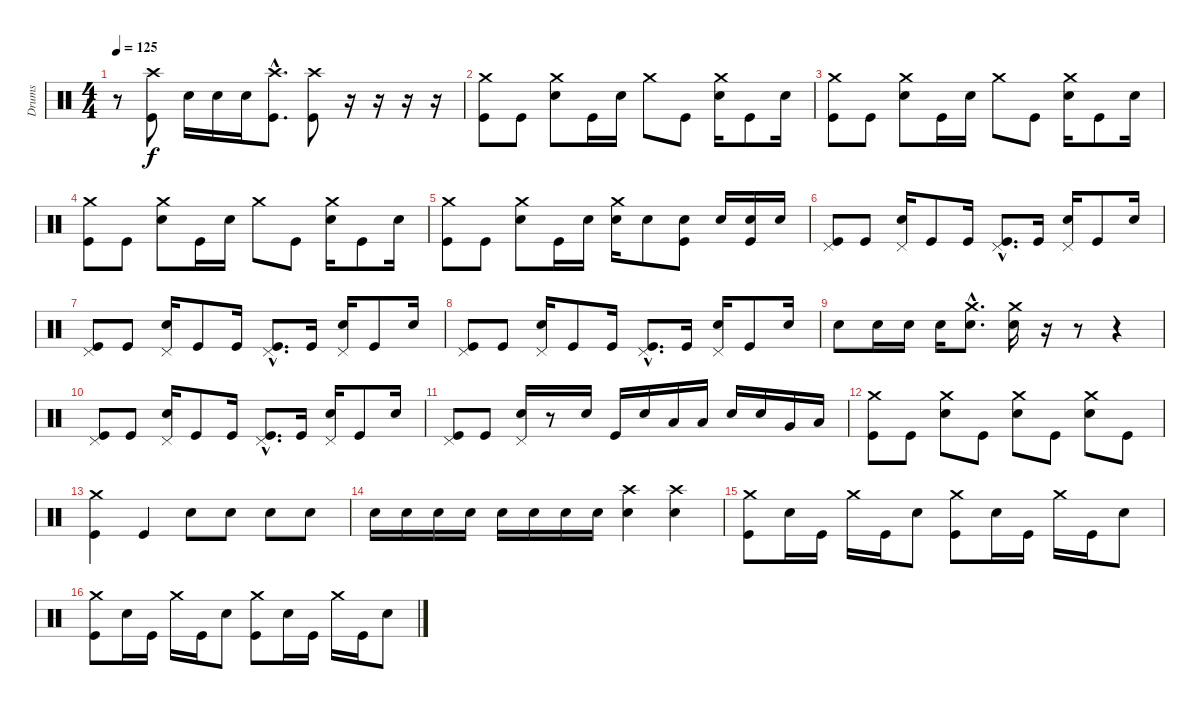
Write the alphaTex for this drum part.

\track ("Drums" "Drums") {instrument percussion}
\staff {score}
\articulation defaults
\ts (4 4)
\tempo 125
\clef neutral
\ks c
r.8{dy f} ("Kick (hit)" "Crash high (hit)").8 "Snare (hit) 2".16 "Snare (hit) 2".16 "Snare (hit) 2".16 ("Kick (hit)"{hac} "Crash high (hit)"{hac}).8{d} ("Kick (hit)" "Crash high (hit)").8 r.16 r.16 r.16 r.16 |
("Kick (hit)" "Crash medium (hit)").8 "Kick (hit)".8 ("Snare (hit) 2" "Crash medium (hit)").8 "Kick (hit)".16 "Snare (hit) 2".16 "Crash medium (hit)".8 "Kick (hit)".8 ("Snare (hit) 2" "Crash medium (hit)").16 "Kick (hit)".8 "Snare (hit) 2".16 |
("Kick (hit)" "Crash medium (hit)").8 "Kick (hit)".8 ("Snare (hit) 2" "Crash medium (hit)").8 "Kick (hit)".16 "Snare (hit) 2".16 "Crash medium (hit)".8 "Kick (hit)".8 ("Snare (hit) 2" "Crash medium (hit)").16 "Kick (hit)".8 "Snare (hit) 2".16 |
("Kick (hit)" "Crash medium (hit)").8 "Kick (hit)".8 ("Snare (hit) 2" "Crash medium (hit)").8 "Kick (hit)".16 "Snare (hit) 2".16 "Crash medium (hit)".8 "Kick (hit)".8 ("Snare (hit) 2" "Crash medium (hit)").16 "Kick (hit)".8 "Snare (hit) 2".16 |
("Kick (hit)" "Crash medium (hit)").8 "Kick (hit)".8 ("Snare (hit) 2" "Crash medium (hit)").8 "Kick (hit)".16 "Snare (hit) 2".16 ("Snare (hit) 2" "Crash medium (hit)").16 "Snare (hit) 2".8 ("Kick (hit)" "Snare (hit) 2").8 "Snare (hit) 2".16 ("Kick (hit)" "Snare (hit) 2").16 "Snare (hit) 2".16 |
("Kick (hit)" "Pedal Hi-Hat (hit)").8 "Kick (hit)".8 ("Snare (hit) 2" "Pedal Hi-Hat (hit)").16 "Kick (hit)".8 "Kick (hit)".16 ("Kick (hit)"{hac} "Pedal Hi-Hat (hit)"{hac}).8{d} "Kick (hit)".16 ("Snare (hit) 2" "Pedal Hi-Hat (hit)").16 "Kick (hit)".8 "Snare (hit) 2".16 |
("Kick (hit)" "Pedal Hi-Hat (hit)").8 "Kick (hit)".8 ("Snare (hit) 2" "Pedal Hi-Hat (hit)").16 "Kick (hit)".8 "Kick (hit)".16 ("Kick (hit)"{hac} "Pedal Hi-Hat (hit)"{hac}).8{d} "Kick (hit)".16 ("Snare (hit) 2" "Pedal Hi-Hat (hit)").16 "Kick (hit)".8 "Snare (hit) 2".16 |
("Kick (hit)" "Pedal Hi-Hat (hit)").8 "Kick (hit)".8 ("Snare (hit) 2" "Pedal Hi-Hat (hit)").16 "Kick (hit)".8 "Kick (hit)".16 ("Kick (hit)"{hac} "Pedal Hi-Hat (hit)"{hac}).8{d} "Kick (hit)".16 ("Snare (hit) 2" "Pedal Hi-Hat (hit)").16 "Kick (hit)".8 "Snare (hit) 2".16 |
"Snare (hit) 2".8 "Snare (hit) 2".16 "Snare (hit) 2".16 "Snare (hit) 2".16 ("Snare (hit) 2"{hac} "Crash medium (hit)"{hac}).8{d} ("Snare (hit) 2" "Crash medium (hit)").16 r.16 r.8 r.4 |
("Kick (hit)" "Pedal Hi-Hat (hit)").8 "Kick (hit)".8 ("Snare (hit) 2" "Pedal Hi-Hat (hit)").16 "Kick (hit)".8 "Kick (hit)".16 ("Kick (hit)"{hac} "Pedal Hi-Hat (hit)"{hac}).8{d} "Kick (hit)".16 ("Snare (hit) 2" "Pedal Hi-Hat (hit)").16 "Kick (hit)".8 "Snare (hit) 2".16 |
("Kick (hit)" "Pedal Hi-Hat (hit)").8 "Kick (hit)".8 ("Snare (hit) 2" "Pedal Hi-Hat (hit)").16 r.8 "Snare (hit) 2".16 "Kick (hit)".16 "Snare (hit) 2".16 "Low Tom (hit)".16 "Low Tom (hit)".16 "Snare (hit) 2".16 "Snare (hit) 2".16 "Very Low Tom (hit)".16 "Low Floor Tom (hit)".16 |
("Kick (hit)" "Crash medium (hit)").8 "Kick (hit)".8 ("Snare (hit) 2" "Crash medium (hit)").8 "Kick (hit)".8 ("Snare (hit) 2" "Crash medium (hit)").8 "Kick (hit)".8 ("Snare (hit) 2" "Crash medium (hit)").8 "Kick (hit)".8 |
("Kick (hit)" "Crash medium (hit)").4 "Kick (hit)".4 "Snare (hit) 2".8 "Snare (hit) 2".8 "Snare (hit) 2".8 "Snare (hit) 2".8 |
"Snare (hit) 2".16 "Snare (hit) 2".16 "Snare (hit) 2".16 "Snare (hit) 2".16 "Snare (hit) 2".16 "Snare (hit) 2".16 "Snare (hit) 2".16 "Snare (hit) 2".16 ("Snare (hit) 2" "Crash high (hit)").4 ("Snare (hit) 2" "Crash high (hit)").4 |
("Kick (hit)" "Crash medium (hit)").8 "Snare (hit) 2".16 "Kick (hit)".16 "Crash medium (hit)".16 "Kick (hit)".16 "Snare (hit) 2".8 ("Kick (hit)" "Crash medium (hit)").8 "Snare (hit) 2".16 "Kick (hit)".16 "Crash medium (hit)".16 "Kick (hit)".16 "Snare (hit) 2".8 |
("Kick (hit)" "Crash medium (hit)").8 "Snare (hit) 2".16 "Kick (hit)".16 "Crash medium (hit)".16 "Kick (hit)".16 "Snare (hit) 2".8 ("Kick (hit)" "Crash medium (hit)").8 "Snare (hit) 2".16 "Kick (hit)".16 "Crash medium (hit)".16 "Kick (hit)".16 "Snare (hit) 2".8
